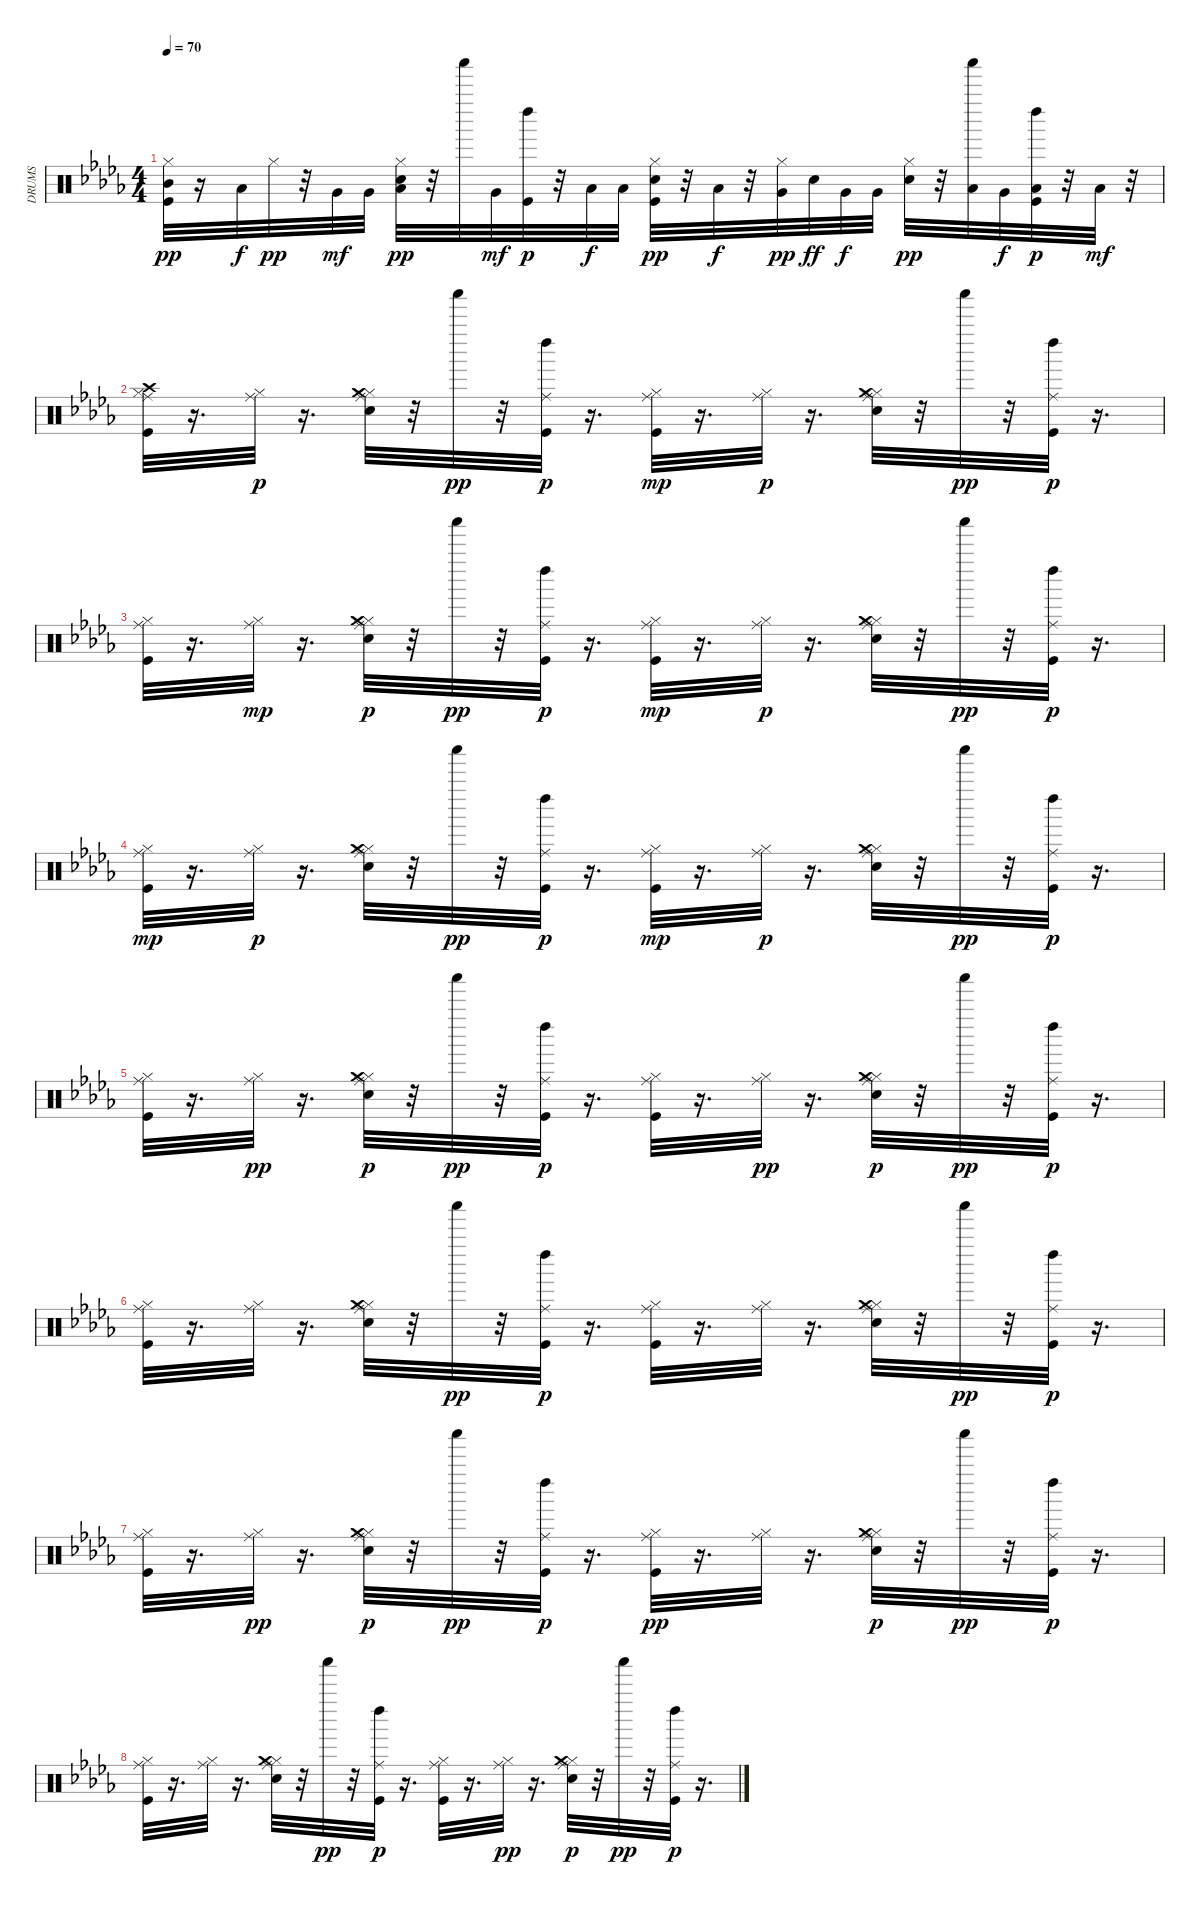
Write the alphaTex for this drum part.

\track ("DRUMS" "DRUMS") {instrument percussion}
\staff {score}
\articulation defaults
\ts (4 4)
\tempo 70
\clef neutral
\ks bbminor
("Kick (hit)" "Hi-Hat (closed)" "Mid Tom (hit)").32{dy pp} r.16 "Low Tom (hit)".32{dy f} "Hi-Hat (closed)".32{dy pp} r.32 "Very Low Tom (hit)".32{dy mf} "Very Low Tom (hit)".32 ("Electric Snare (hit)" "Hi-Hat (closed)" "Low Tom (hit)").32{dy pp} r.32 "Shaker (hit)".32 "Very Low Tom (hit)".32{dy mf} ("Kick (hit)" "Left Maraca (hit)").32{dy p} r.32 "Low Floor Tom (hit)".32{dy f} "Low Floor Tom (hit)".32 ("Kick (hit)" "Electric Snare (hit)" "Hi-Hat (closed)").32{dy pp} r.32 "Low Floor Tom (hit)".32{dy f} r.32 ("Hi-Hat (closed)" "Very Low Tom (hit)").32{dy pp} "Electric Snare (hit)".32{dy ff} "Very Low Tom (hit)".32{dy f} "Very Low Tom (hit)".32 ("Electric Snare (hit)" "Hi-Hat (closed)").32{dy pp} r.32 ("Low Floor Tom (hit)" "Shaker (hit)").32 "Very Low Tom (hit)".32{dy f} ("Kick (hit)" "Low Tom (hit)" "Left Maraca (hit)").32{dy p} r.32 "Low Floor Tom (hit)".32{dy mf} r.32 |
("Kick (hit)" "Hi-Hat (closed)" "Crash high (hit)" "Ride (middle)").32 r.16{d} ("Hi-Hat (closed)" "Ride (middle)").32{dy p} r.16{d} ("Electric Snare (hit)" "Hi-Hat (closed)" "Ride (middle)" "Crash medium (hit)").32 r.32 "Shaker (hit)".32{dy pp} r.32 ("Kick (hit)" "Ride (middle)" "Left Maraca (hit)").32{dy p} r.16{d} ("Kick (hit)" "Hi-Hat (closed)" "Ride (middle)").32{dy mp} r.16{d} ("Hi-Hat (closed)" "Ride (middle)").32{dy p} r.16{d} ("Electric Snare (hit)" "Hi-Hat (closed)" "Ride (middle)" "Crash medium (hit)").32 r.32 "Shaker (hit)".32{dy pp} r.32 ("Kick (hit)" "Ride (middle)" "Left Maraca (hit)").32{dy p} r.16{d} |
("Kick (hit)" "Hi-Hat (closed)" "Ride (middle)").32 r.16{d} ("Hi-Hat (closed)" "Ride (middle)").32{dy mp} r.16{d} ("Electric Snare (hit)" "Hi-Hat (closed)" "Ride (middle)" "Crash medium (hit)").32{dy p} r.32 "Shaker (hit)".32{dy pp} r.32 ("Kick (hit)" "Ride (middle)" "Left Maraca (hit)").32{dy p} r.16{d} ("Kick (hit)" "Hi-Hat (closed)" "Ride (middle)").32{dy mp} r.16{d} ("Hi-Hat (closed)" "Ride (middle)").32{dy p} r.16{d} ("Electric Snare (hit)" "Hi-Hat (closed)" "Ride (middle)" "Crash medium (hit)").32 r.32 "Shaker (hit)".32{dy pp} r.32 ("Kick (hit)" "Ride (middle)" "Left Maraca (hit)").32{dy p} r.16{d} |
("Kick (hit)" "Hi-Hat (closed)" "Ride (middle)").32{dy mp} r.16{d} ("Hi-Hat (closed)" "Ride (middle)").32{dy p} r.16{d} ("Electric Snare (hit)" "Hi-Hat (closed)" "Ride (middle)" "Crash medium (hit)").32 r.32 "Shaker (hit)".32{dy pp} r.32 ("Kick (hit)" "Ride (middle)" "Left Maraca (hit)").32{dy p} r.16{d} ("Kick (hit)" "Hi-Hat (closed)" "Ride (middle)").32{dy mp} r.16{d} ("Hi-Hat (closed)" "Ride (middle)").32{dy p} r.16{d} ("Electric Snare (hit)" "Hi-Hat (closed)" "Ride (middle)" "Crash medium (hit)").32 r.32 "Shaker (hit)".32{dy pp} r.32 ("Kick (hit)" "Ride (middle)" "Left Maraca (hit)").32{dy p} r.16{d} |
("Kick (hit)" "Hi-Hat (closed)" "Ride (middle)").32 r.16{d} ("Hi-Hat (closed)" "Ride (middle)").32{dy pp} r.16{d} ("Electric Snare (hit)" "Hi-Hat (closed)" "Ride (middle)" "Crash medium (hit)").32{dy p} r.32 "Shaker (hit)".32{dy pp} r.32 ("Kick (hit)" "Ride (middle)" "Left Maraca (hit)").32{dy p} r.16{d} ("Kick (hit)" "Hi-Hat (closed)" "Ride (middle)").32 r.16{d} ("Hi-Hat (closed)" "Ride (middle)").32{dy pp} r.16{d} ("Electric Snare (hit)" "Hi-Hat (closed)" "Ride (middle)" "Crash medium (hit)").32{dy p} r.32 "Shaker (hit)".32{dy pp} r.32 ("Kick (hit)" "Ride (middle)" "Left Maraca (hit)").32{dy p} r.16{d} |
("Kick (hit)" "Hi-Hat (closed)" "Ride (middle)").32 r.16{d} ("Hi-Hat (closed)" "Ride (middle)").32 r.16{d} ("Electric Snare (hit)" "Hi-Hat (closed)" "Ride (middle)" "Crash medium (hit)").32 r.32 "Shaker (hit)".32{dy pp} r.32 ("Kick (hit)" "Ride (middle)" "Left Maraca (hit)").32{dy p} r.16{d} ("Kick (hit)" "Hi-Hat (closed)" "Ride (middle)").32 r.16{d} ("Hi-Hat (closed)" "Ride (middle)").32 r.16{d} ("Electric Snare (hit)" "Hi-Hat (closed)" "Ride (middle)" "Crash medium (hit)").32 r.32 "Shaker (hit)".32{dy pp} r.32 ("Kick (hit)" "Ride (middle)" "Left Maraca (hit)").32{dy p} r.16{d} |
("Kick (hit)" "Hi-Hat (closed)" "Ride (middle)").32 r.16{d} ("Hi-Hat (closed)" "Ride (middle)").32{dy pp} r.16{d} ("Electric Snare (hit)" "Hi-Hat (closed)" "Ride (middle)" "Crash medium (hit)").32{dy p} r.32 "Shaker (hit)".32{dy pp} r.32 ("Kick (hit)" "Ride (middle)" "Left Maraca (hit)").32{dy p} r.16{d} ("Kick (hit)" "Hi-Hat (closed)" "Ride (middle)").32{dy pp} r.16{d} ("Hi-Hat (closed)" "Ride (middle)").32 r.16{d} ("Electric Snare (hit)" "Hi-Hat (closed)" "Ride (middle)" "Crash medium (hit)").32{dy p} r.32 "Shaker (hit)".32{dy pp} r.32 ("Kick (hit)" "Ride (middle)" "Left Maraca (hit)").32{dy p} r.16{d} |
("Kick (hit)" "Hi-Hat (closed)" "Ride (middle)").32 r.16{d} ("Hi-Hat (closed)" "Ride (middle)").32 r.16{d} ("Electric Snare (hit)" "Hi-Hat (closed)" "Ride (middle)" "Crash medium (hit)").32 r.32 "Shaker (hit)".32{dy pp} r.32 ("Kick (hit)" "Ride (middle)" "Left Maraca (hit)").32{dy p} r.16{d} ("Kick (hit)" "Hi-Hat (closed)" "Ride (middle)").32 r.16{d} ("Hi-Hat (closed)" "Ride (middle)").32{dy pp} r.16{d} ("Electric Snare (hit)" "Hi-Hat (closed)" "Ride (middle)" "Crash medium (hit)").32{dy p} r.32 "Shaker (hit)".32{dy pp} r.32 ("Kick (hit)" "Ride (middle)" "Left Maraca (hit)").32{dy p} r.16{d}
